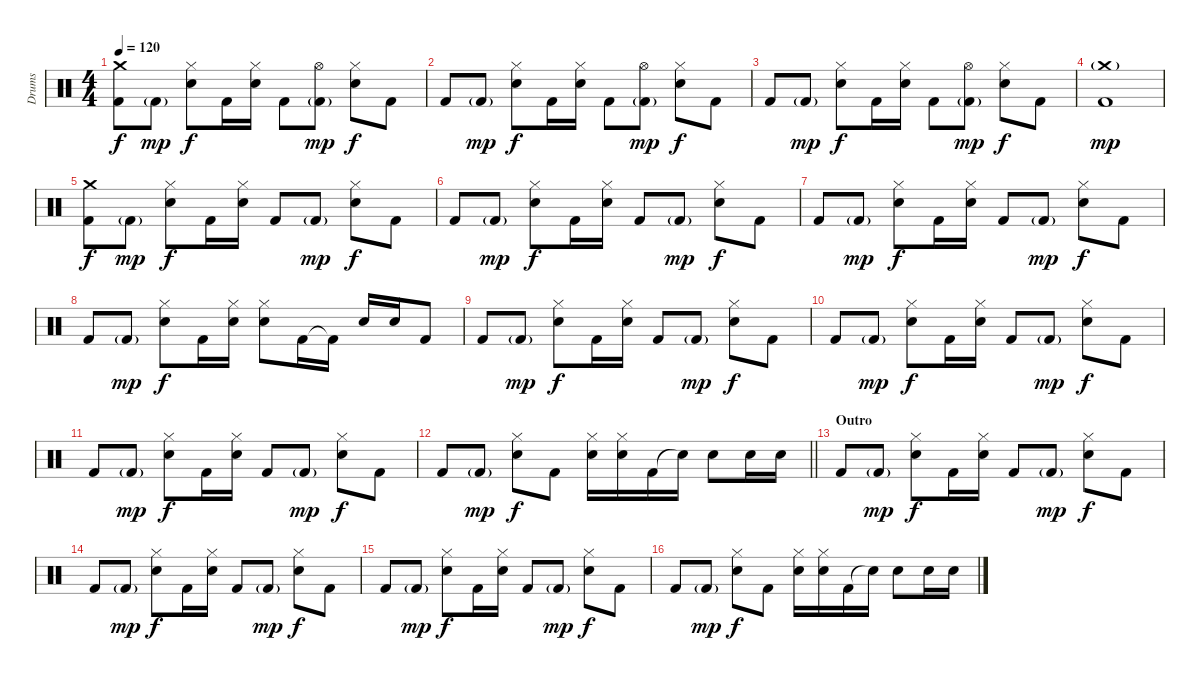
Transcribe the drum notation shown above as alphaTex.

\track ("Drums" "Drums") {instrument percussion}
\staff {score}
\articulation defaults
\ts (4 4)
\tempo 120
\clef neutral
\ks c
("Crash medium (hit)" "Kick (hit) 2").8{dy f} "Kick (hit) 2"{g}.8{dy mp} ("Hi-Hat (closed)" "Snare (hit) 2").8{dy f} "Kick (hit) 2".16 ("Hi-Hat (closed)" "Snare (hit) 2").16 "Kick (hit) 2".8 ("Hi-Hat (open)" "Kick (hit) 2"{g}).8{dy mp} ("Hi-Hat (closed)" "Snare (hit) 2").8{dy f} "Kick (hit) 2".8 |
"Kick (hit) 2".8 "Kick (hit) 2"{g}.8{dy mp} ("Hi-Hat (closed)" "Snare (hit) 2").8{dy f} "Kick (hit) 2".16 ("Hi-Hat (closed)" "Snare (hit) 2").16 "Kick (hit) 2".8 ("Hi-Hat (open)" "Kick (hit) 2"{g}).8{dy mp} ("Hi-Hat (closed)" "Snare (hit) 2").8{dy f} "Kick (hit) 2".8 |
"Kick (hit) 2".8 "Kick (hit) 2"{g}.8{dy mp} ("Hi-Hat (closed)" "Snare (hit) 2").8{dy f} "Kick (hit) 2".16 ("Hi-Hat (closed)" "Snare (hit) 2").16 "Kick (hit) 2".8 ("Hi-Hat (open)" "Kick (hit) 2"{g}).8{dy mp} ("Hi-Hat (closed)" "Snare (hit) 2").8{dy f} "Kick (hit) 2".8 |
("Crash medium (hit)"{g} "Kick (hit) 2").1{dy mp} |
("Crash medium (hit)" "Kick (hit) 2").8{dy f} "Kick (hit) 2"{g}.8{dy mp} ("Hi-Hat (closed)" "Snare (hit) 2").8{dy f} "Kick (hit) 2".16 ("Hi-Hat (closed)" "Snare (hit) 2").16 "Kick (hit) 2".8 "Kick (hit) 2"{g}.8{dy mp} ("Hi-Hat (closed)" "Snare (hit) 2").8{dy f} "Kick (hit) 2".8 |
"Kick (hit) 2".8 "Kick (hit) 2"{g}.8{dy mp} ("Hi-Hat (closed)" "Snare (hit) 2").8{dy f} "Kick (hit) 2".16 ("Hi-Hat (closed)" "Snare (hit) 2").16 "Kick (hit) 2".8 "Kick (hit) 2"{g}.8{dy mp} ("Hi-Hat (closed)" "Snare (hit) 2").8{dy f} "Kick (hit) 2".8 |
"Kick (hit) 2".8 "Kick (hit) 2"{g}.8{dy mp} ("Hi-Hat (closed)" "Snare (hit) 2").8{dy f} "Kick (hit) 2".16 ("Hi-Hat (closed)" "Snare (hit) 2").16 "Kick (hit) 2".8 "Kick (hit) 2"{g}.8{dy mp} ("Hi-Hat (closed)" "Snare (hit) 2").8{dy f} "Kick (hit) 2".8 |
"Kick (hit) 2".8 "Kick (hit) 2"{g}.8{dy mp} ("Hi-Hat (closed)" "Snare (hit) 2").8{dy f} "Kick (hit) 2".16 ("Hi-Hat (closed)" "Snare (hit) 2").16 ("Hi-Hat (closed)" "Snare (hit) 2").8 "Kick (hit) 2".16 "Kick (hit) 2"{t}.16 "Snare (hit) 2".16 "Snare (hit) 2".16 "Kick (hit) 2".8 |
"Kick (hit) 2".8 "Kick (hit) 2"{g}.8{dy mp} ("Hi-Hat (closed)" "Snare (hit) 2").8{dy f} "Kick (hit) 2".16 ("Hi-Hat (closed)" "Snare (hit) 2").16 "Kick (hit) 2".8 "Kick (hit) 2"{g}.8{dy mp} ("Hi-Hat (closed)" "Snare (hit) 2").8{dy f} "Kick (hit) 2".8 |
"Kick (hit) 2".8 "Kick (hit) 2"{g}.8{dy mp} ("Hi-Hat (closed)" "Snare (hit) 2").8{dy f} "Kick (hit) 2".16 ("Hi-Hat (closed)" "Snare (hit) 2").16 "Kick (hit) 2".8 "Kick (hit) 2"{g}.8{dy mp} ("Hi-Hat (closed)" "Snare (hit) 2").8{dy f} "Kick (hit) 2".8 |
"Kick (hit) 2".8 "Kick (hit) 2"{g}.8{dy mp} ("Hi-Hat (closed)" "Snare (hit) 2").8{dy f} "Kick (hit) 2".16 ("Hi-Hat (closed)" "Snare (hit) 2").16 "Kick (hit) 2".8 "Kick (hit) 2"{g}.8{dy mp} ("Hi-Hat (closed)" "Snare (hit) 2").8{dy f} "Kick (hit) 2".8 |
\barLineRight lightlight "Kick (hit) 2".8 "Kick (hit) 2"{g}.8{dy mp}
("Hi-Hat (closed)" "Snare (hit) 2").8{dy f} "Kick (hit) 2".8 ("Hi-Hat (closed)" "Snare (hit) 2").16 ("Hi-Hat (closed)" "Snare (hit) 2").16 "Kick (hit) 2".16 "Snare (hit) 2"{t}.16 "Snare (hit) 2".8 "Snare (hit) 2".16 "Snare (hit) 2".16 |
\section ("" "Outro")
"Kick (hit) 2".8 "Kick (hit) 2"{g}.8{dy mp} ("Hi-Hat (closed)" "Snare (hit) 2").8{dy f} "Kick (hit) 2".16 ("Hi-Hat (closed)" "Snare (hit) 2").16 "Kick (hit) 2".8 "Kick (hit) 2"{g}.8{dy mp} ("Hi-Hat (closed)" "Snare (hit) 2").8{dy f} "Kick (hit) 2".8 |
"Kick (hit) 2".8 "Kick (hit) 2"{g}.8{dy mp} ("Hi-Hat (closed)" "Snare (hit) 2").8{dy f} "Kick (hit) 2".16 ("Hi-Hat (closed)" "Snare (hit) 2").16 "Kick (hit) 2".8 "Kick (hit) 2"{g}.8{dy mp} ("Hi-Hat (closed)" "Snare (hit) 2").8{dy f} "Kick (hit) 2".8 |
"Kick (hit) 2".8 "Kick (hit) 2"{g}.8{dy mp} ("Hi-Hat (closed)" "Snare (hit) 2").8{dy f} "Kick (hit) 2".16 ("Hi-Hat (closed)" "Snare (hit) 2").16 "Kick (hit) 2".8 "Kick (hit) 2"{g}.8{dy mp} ("Hi-Hat (closed)" "Snare (hit) 2").8{dy f} "Kick (hit) 2".8 |
"Kick (hit) 2".8 "Kick (hit) 2"{g}.8{dy mp} ("Hi-Hat (closed)" "Snare (hit) 2").8{dy f} "Kick (hit) 2".8 ("Hi-Hat (closed)" "Snare (hit) 2").16 ("Hi-Hat (closed)" "Snare (hit) 2").16 "Kick (hit) 2".16 "Snare (hit) 2"{t}.16 "Snare (hit) 2".8 "Snare (hit) 2".16 "Snare (hit) 2".16
